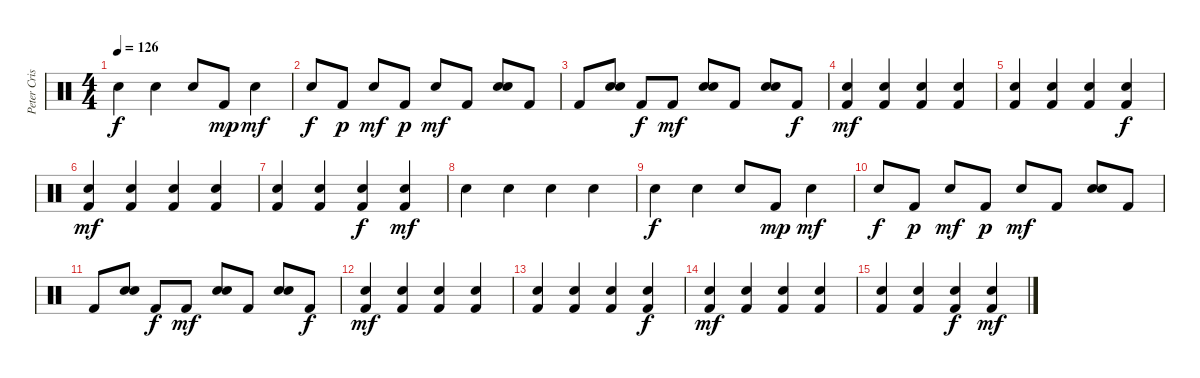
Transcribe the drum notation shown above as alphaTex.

\track ("Peter Criss" "Peter Cris") {instrument percussion}
\staff {score}
\articulation defaults
\ts (4 4)
\tempo 126
\clef neutral
\ks c "Electric Snare (hit)".4{dy f} "Electric Snare (hit)".4 "Electric Snare (hit)".8 "Kick (hit) 2".8{dy mp} "Electric Snare (hit)".4{dy mf}
|
"Electric Snare (hit)".8{dy f} "Kick (hit) 2".8{dy p} "Electric Snare (hit)".8{dy mf} "Kick (hit) 2".8{dy p} "Electric Snare (hit)".8{dy mf} "Kick (hit) 2".8 ("Electric Snare (hit)" "Electric Snare (hit)").8 "Kick (hit) 2".8 |
"Kick (hit) 2".8 ("Electric Snare (hit)" "Electric Snare (hit)").8 "Kick (hit) 2".8{dy f} "Kick (hit) 2".8{dy mf} ("Electric Snare (hit)" "Electric Snare (hit)").8 "Kick (hit) 2".8 ("Electric Snare (hit)" "Electric Snare (hit)").8 "Kick (hit) 2".8{dy f} |
("Kick (hit) 2" "Electric Snare (hit)").4{dy mf} ("Kick (hit) 2" "Electric Snare (hit)").4 ("Kick (hit) 2" "Electric Snare (hit)").4 ("Kick (hit) 2" "Electric Snare (hit)").4 |
("Kick (hit) 2" "Electric Snare (hit)").4 ("Kick (hit) 2" "Electric Snare (hit)").4 ("Kick (hit) 2" "Electric Snare (hit)").4 ("Kick (hit) 2" "Electric Snare (hit)").4{dy f} |
("Kick (hit) 2" "Electric Snare (hit)").4{dy mf} ("Kick (hit) 2" "Electric Snare (hit)").4 ("Kick (hit) 2" "Electric Snare (hit)").4 ("Kick (hit) 2" "Electric Snare (hit)").4 |
("Kick (hit) 2" "Electric Snare (hit)").4 ("Kick (hit) 2" "Electric Snare (hit)").4 ("Kick (hit) 2" "Electric Snare (hit)").4{dy f} ("Kick (hit) 2" "Electric Snare (hit)").4{dy mf} |
"Electric Snare (hit)".4 "Electric Snare (hit)".4 "Electric Snare (hit)".4 "Electric Snare (hit)".4 |
"Electric Snare (hit)".4{dy f} "Electric Snare (hit)".4 "Electric Snare (hit)".8 "Kick (hit) 2".8{dy mp} "Electric Snare (hit)".4{dy mf} |
"Electric Snare (hit)".8{dy f} "Kick (hit) 2".8{dy p} "Electric Snare (hit)".8{dy mf} "Kick (hit) 2".8{dy p} "Electric Snare (hit)".8{dy mf} "Kick (hit) 2".8 ("Electric Snare (hit)" "Electric Snare (hit)").8 "Kick (hit) 2".8 |
"Kick (hit) 2".8{volume 0} ("Electric Snare (hit)" "Electric Snare (hit)").8 "Kick (hit) 2".8{dy f} "Kick (hit) 2".8{dy mf} ("Electric Snare (hit)" "Electric Snare (hit)").8 "Kick (hit) 2".8 ("Electric Snare (hit)" "Electric Snare (hit)").8 "Kick (hit) 2".8{dy f} |
("Kick (hit) 2" "Electric Snare (hit)").4{dy mf} ("Kick (hit) 2" "Electric Snare (hit)").4 ("Kick (hit) 2" "Electric Snare (hit)").4 ("Kick (hit) 2" "Electric Snare (hit)").4 |
("Kick (hit) 2" "Electric Snare (hit)").4 ("Kick (hit) 2" "Electric Snare (hit)").4 ("Kick (hit) 2" "Electric Snare (hit)").4 ("Kick (hit) 2" "Electric Snare (hit)").4{dy f} |
("Kick (hit) 2" "Electric Snare (hit)").4{dy mf} ("Kick (hit) 2" "Electric Snare (hit)").4 ("Kick (hit) 2" "Electric Snare (hit)").4 ("Kick (hit) 2" "Electric Snare (hit)").4 |
("Kick (hit) 2" "Electric Snare (hit)").4 ("Kick (hit) 2" "Electric Snare (hit)").4 ("Kick (hit) 2" "Electric Snare (hit)").4{dy f} ("Kick (hit) 2" "Electric Snare (hit)").4{dy mf}
